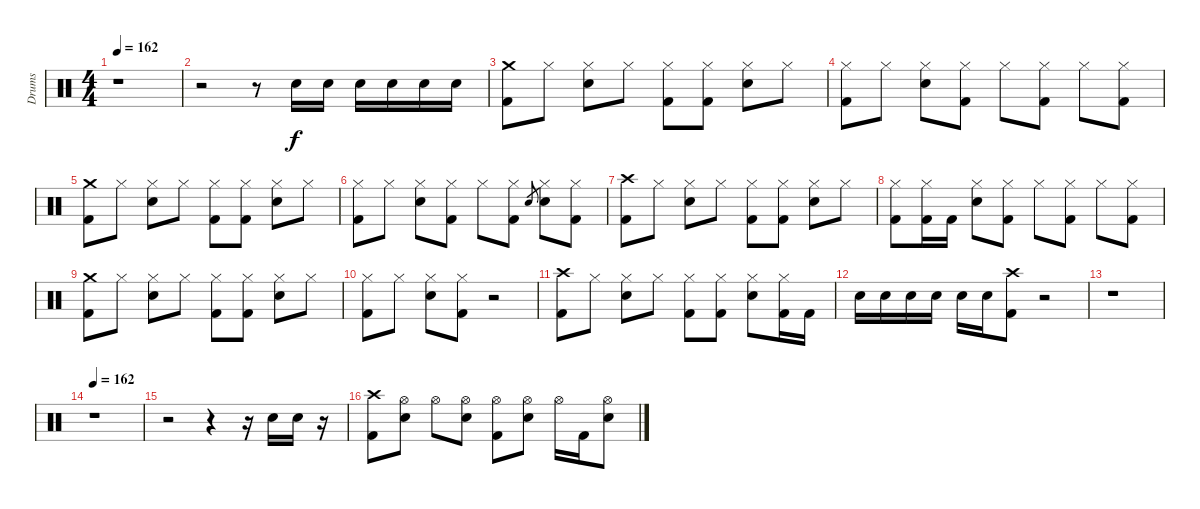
\track ("Drums" "Drums") {instrument percussion}
\staff {score}
\articulation defaults
\ts (4 4)
\tempo 162
\tempo 90
\tempo 162
\clef neutral
\ks c
r.1{dy f} |
r.2 r.8 "Electric Snare (hit)".16 "Electric Snare (hit)".16 "Electric Snare (hit)".16 "Electric Snare (hit)".16 "Electric Snare (hit)".16 "Electric Snare (hit)".16 |
("Kick (hit) 2" "Crash medium (hit)").8 "Hi-Hat (closed)".8 ("Electric Snare (hit)" "Hi-Hat (closed)").8 "Hi-Hat (closed)".8 ("Kick (hit) 2" "Hi-Hat (closed)").8 ("Kick (hit) 2" "Hi-Hat (closed)").8 ("Electric Snare (hit)" "Hi-Hat (closed)").8 "Hi-Hat (closed)".8 |
("Kick (hit) 2" "Hi-Hat (closed)").8 "Hi-Hat (closed)".8 ("Electric Snare (hit)" "Hi-Hat (closed)").8 ("Kick (hit) 2" "Hi-Hat (closed)").8 "Hi-Hat (closed)".8 ("Kick (hit) 2" "Hi-Hat (closed)").8 "Hi-Hat (closed)".8 ("Kick (hit) 2" "Hi-Hat (closed)").8 |
("Kick (hit) 2" "Crash medium (hit)").8 "Hi-Hat (closed)".8 ("Electric Snare (hit)" "Hi-Hat (closed)").8 "Hi-Hat (closed)".8 ("Kick (hit) 2" "Hi-Hat (closed)").8 ("Kick (hit) 2" "Hi-Hat (closed)").8 ("Electric Snare (hit)" "Hi-Hat (closed)").8 "Hi-Hat (closed)".8 |
("Kick (hit) 2" "Hi-Hat (closed)").8 "Hi-Hat (closed)".8 ("Electric Snare (hit)" "Hi-Hat (closed)").8 ("Kick (hit) 2" "Hi-Hat (closed)").8 "Hi-Hat (closed)".8 ("Kick (hit) 2" "Hi-Hat (closed)").8 "Electric Snare (hit)".8{gr} ("Electric Snare (hit)" "Hi-Hat (closed)").8 ("Kick (hit) 2" "Hi-Hat (closed)").8 |
("Kick (hit) 2" "Crash high (hit)").8 "Hi-Hat (closed)".8 ("Electric Snare (hit)" "Hi-Hat (closed)").8 "Hi-Hat (closed)".8 ("Kick (hit) 2" "Hi-Hat (closed)").8 ("Kick (hit) 2" "Hi-Hat (closed)").8 ("Electric Snare (hit)" "Hi-Hat (closed)").8 "Hi-Hat (closed)".8 |
("Kick (hit) 2" "Hi-Hat (closed)").8 ("Kick (hit) 2" "Hi-Hat (closed)").16 "Kick (hit) 2".16 ("Electric Snare (hit)" "Hi-Hat (closed)").8 ("Kick (hit) 2" "Hi-Hat (closed)").8 "Hi-Hat (closed)".8 ("Kick (hit) 2" "Hi-Hat (closed)").8 "Hi-Hat (closed)".8 ("Kick (hit) 2" "Hi-Hat (closed)").8 |
("Kick (hit) 2" "Crash medium (hit)").8 "Hi-Hat (closed)".8 ("Electric Snare (hit)" "Hi-Hat (closed)").8 "Hi-Hat (closed)".8 ("Kick (hit) 2" "Hi-Hat (closed)").8 ("Kick (hit) 2" "Hi-Hat (closed)").8 ("Electric Snare (hit)" "Hi-Hat (closed)").8 "Hi-Hat (closed)".8 |
("Kick (hit) 2" "Hi-Hat (closed)").8 "Hi-Hat (closed)".8 ("Electric Snare (hit)" "Hi-Hat (closed)").8 ("Kick (hit) 2" "Hi-Hat (closed)").8 r.2 |
("Kick (hit) 2" "Crash high (hit)").8 "Hi-Hat (closed)".8 ("Electric Snare (hit)" "Hi-Hat (closed)").8 "Hi-Hat (closed)".8 ("Kick (hit) 2" "Hi-Hat (closed)").8 ("Kick (hit) 2" "Hi-Hat (closed)").8 ("Electric Snare (hit)" "Hi-Hat (closed)").8 ("Kick (hit) 2" "Hi-Hat (closed)").16 "Kick (hit) 2".16 |
"Electric Snare (hit)".16 "Electric Snare (hit)".16 "Electric Snare (hit)".16 "Electric Snare (hit)".16 "Electric Snare (hit)".16 "Electric Snare (hit)".16 ("Kick (hit) 2" "Crash high (hit)").8 r.2 |
r.1 |
\tempo 162
r.1 |
r.2 r.4 r.16 "Electric Snare (hit)".16 "Electric Snare (hit)".16 r.16 |
("Kick (hit) 2" "Crash high (hit)").8 ("Electric Snare (hit)" "Hi-Hat (open)").8 "Hi-Hat (open)".8 ("Electric Snare (hit)" "Hi-Hat (open)").8 ("Kick (hit) 2" "Hi-Hat (open)").8 ("Electric Snare (hit)" "Hi-Hat (open)").8 "Hi-Hat (open)".16 "Kick (hit) 2".16 ("Electric Snare (hit)" "Hi-Hat (open)").8
